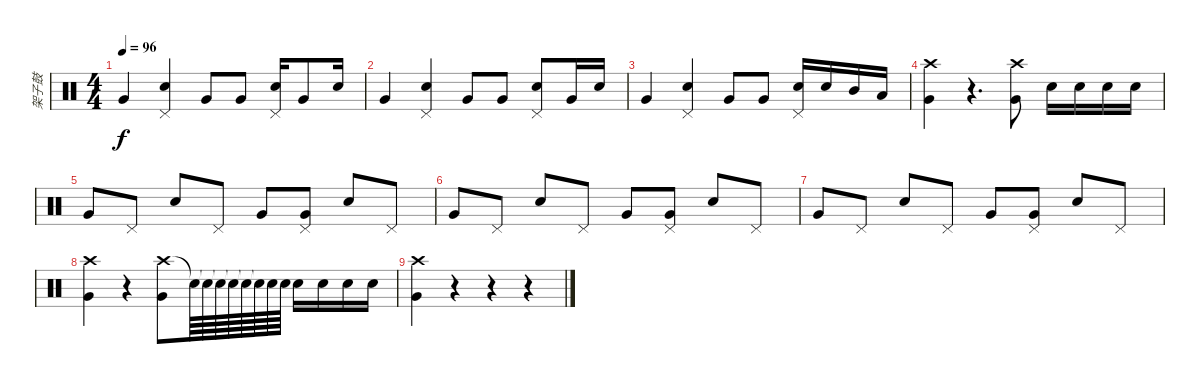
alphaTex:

\track ("架子鼓" "架子鼓") {instrument percussion}
\staff {score}
\articulation defaults
\ts (4 4)
\tempo 96
\clef neutral
\ks c "Very Low Tom (hit)".4{dy f}
("Pedal Hi-Hat (hit)" "Snare (hit) 2").4 "Very Low Tom (hit)".8 "Very Low Tom (hit)".8 ("Pedal Hi-Hat (hit)" "Snare (hit) 2").16 "Very Low Tom (hit)".8 "Snare (hit) 2".16 |
"Very Low Tom (hit)".4 ("Pedal Hi-Hat (hit)" "Snare (hit) 2").4 "Very Low Tom (hit)".8 "Very Low Tom (hit)".8 ("Pedal Hi-Hat (hit)" "Snare (hit) 2").8 "Very Low Tom (hit)".16 "Snare (hit) 2".16 |
"Very Low Tom (hit)".4 ("Pedal Hi-Hat (hit)" "Snare (hit) 2").4 "Very Low Tom (hit)".8 "Very Low Tom (hit)".8 ("Pedal Hi-Hat (hit)" "Snare (hit) 2").16 "Snare (hit) 2".16 "Mid Tom (hit)".16 "Low Tom (hit)".16 |
("Crash high (hit)" "Very Low Tom (hit)").4 r.4{d} ("Crash high (hit)" "Very Low Tom (hit)").8 "Snare (hit) 2".16 "Snare (hit) 2".16 "Snare (hit) 2".16 "Snare (hit) 2".16 |
"Very Low Tom (hit)".8 "Pedal Hi-Hat (hit)".8 "Snare (hit) 2".8 "Pedal Hi-Hat (hit)".8 "Very Low Tom (hit)".8 ("Pedal Hi-Hat (hit)" "Very Low Tom (hit)").8 "Snare (hit) 2".8 "Pedal Hi-Hat (hit)".8 |
"Very Low Tom (hit)".8 "Pedal Hi-Hat (hit)".8 "Snare (hit) 2".8 "Pedal Hi-Hat (hit)".8 "Very Low Tom (hit)".8 ("Pedal Hi-Hat (hit)" "Very Low Tom (hit)").8 "Snare (hit) 2".8 "Pedal Hi-Hat (hit)".8 |
"Very Low Tom (hit)".8 "Pedal Hi-Hat (hit)".8 "Snare (hit) 2".8 "Pedal Hi-Hat (hit)".8 "Very Low Tom (hit)".8 ("Pedal Hi-Hat (hit)" "Very Low Tom (hit)").8 "Snare (hit) 2".8 "Pedal Hi-Hat (hit)".8 |
("Crash high (hit)" "Very Low Tom (hit)").4 r.4 ("Crash high (hit)" "Very Low Tom (hit)").8 "Snare (hit)"{t}.64 "Snare (hit)"{t}.64 "Snare (hit)"{t}.64 "Snare (hit)"{t}.64 "Snare (hit)"{t}.64 "Snare (hit)"{t}.64 "Snare (hit) 2".64 "Snare (hit) 2".64 "Snare (hit) 2".16 "Snare (hit) 2".16 "Snare (hit) 2".16 "Snare (hit) 2".16 |
("Crash high (hit)" "Very Low Tom (hit)").4 r.4 r.4 r.4
